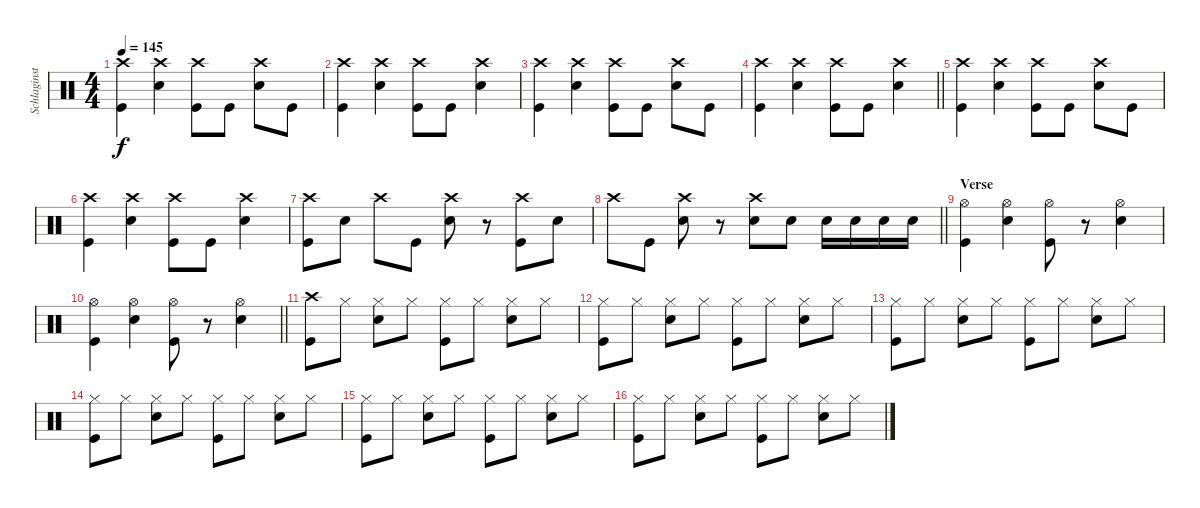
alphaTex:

\track ("Schlaginstrumente - Auswahl" "Schlaginst") {instrument percussion}
\staff {score}
\articulation defaults
\ts (4 4)
\tempo 145
\clef neutral
\ks c
("Kick (hit)" "Crash high (hit)").4{dy f} ("Snare (hit) 2" "Crash high (hit)").4 ("Kick (hit)" "Crash high (hit)").8 "Kick (hit)".8 ("Snare (hit) 2" "Crash high (hit)").8 "Kick (hit)".8 |
("Kick (hit)" "Crash high (hit)").4 ("Snare (hit) 2" "Crash high (hit)").4 ("Kick (hit)" "Crash high (hit)").8 "Kick (hit)".8 ("Snare (hit) 2" "Crash high (hit)").4 |
("Kick (hit)" "Crash high (hit)").4 ("Snare (hit) 2" "Crash high (hit)").4 ("Kick (hit)" "Crash high (hit)").8 "Kick (hit)".8 ("Snare (hit) 2" "Crash high (hit)").8 "Kick (hit)".8 |
\barLineRight lightlight
("Kick (hit)" "Crash high (hit)").4 ("Snare (hit) 2" "Crash high (hit)").4 ("Kick (hit)" "Crash high (hit)").8 "Kick (hit)".8 ("Snare (hit) 2" "Crash high (hit)").4 |
("Kick (hit)" "Crash high (hit)").4 ("Snare (hit) 2" "Crash high (hit)").4 ("Kick (hit)" "Crash high (hit)").8 "Kick (hit)".8 ("Snare (hit) 2" "Crash high (hit)").8 "Kick (hit)".8 |
("Kick (hit)" "Crash high (hit)").4 ("Snare (hit) 2" "Crash high (hit)").4 ("Kick (hit)" "Crash high (hit)").8 "Kick (hit)".8 ("Snare (hit) 2" "Crash high (hit)").4 |
("Kick (hit)" "Crash high (hit)").8 "Snare (hit) 2".8 "Crash high (hit)".8 "Kick (hit)".8 ("Snare (hit) 2" "Crash high (hit)").8 r.8 ("Kick (hit)" "Crash high (hit)").8 "Snare (hit) 2".8 |
\barLineRight lightlight "Crash high (hit)".8 "Kick (hit)".8
("Snare (hit) 2" "Crash high (hit)").8 r.8 ("Snare (hit) 2" "Crash high (hit)").8 "Snare (hit) 2".8 "Snare (hit) 2".16 "Snare (hit) 2".16 "Snare (hit) 2".16 "Snare (hit) 2".16 |
\section ("" "Verse")
("Kick (hit)" "Hi-Hat (open)").4 ("Snare (hit) 2" "Hi-Hat (open)").4 ("Kick (hit)" "Hi-Hat (open)").8 r.8 ("Snare (hit) 2" "Hi-Hat (open)").4 |
\barLineRight lightlight
("Kick (hit)" "Hi-Hat (open)").4 ("Snare (hit) 2" "Hi-Hat (open)").4 ("Kick (hit)" "Hi-Hat (open)").8 r.8 ("Snare (hit) 2" "Hi-Hat (open)").4 |
("Crash high (hit)" "Kick (hit)").8 "Hi-Hat (closed)".8 ("Hi-Hat (closed)" "Snare (hit) 2").8 "Hi-Hat (closed)".8 ("Hi-Hat (closed)" "Kick (hit)").8 "Hi-Hat (closed)".8 ("Hi-Hat (closed)" "Snare (hit) 2").8 "Hi-Hat (closed)".8 |
("Hi-Hat (closed)" "Kick (hit)").8 "Hi-Hat (closed)".8 ("Hi-Hat (closed)" "Snare (hit) 2").8 "Hi-Hat (closed)".8 ("Hi-Hat (closed)" "Kick (hit)").8 "Hi-Hat (closed)".8 ("Hi-Hat (closed)" "Snare (hit) 2").8 "Hi-Hat (closed)".8 |
("Hi-Hat (closed)" "Kick (hit)").8 "Hi-Hat (closed)".8 ("Hi-Hat (closed)" "Snare (hit) 2").8 "Hi-Hat (closed)".8 ("Hi-Hat (closed)" "Kick (hit)").8 "Hi-Hat (closed)".8 ("Hi-Hat (closed)" "Snare (hit) 2").8 "Hi-Hat (closed)".8 |
("Hi-Hat (closed)" "Kick (hit)").8 "Hi-Hat (closed)".8 ("Hi-Hat (closed)" "Snare (hit) 2").8 "Hi-Hat (closed)".8 ("Hi-Hat (closed)" "Kick (hit)").8 "Hi-Hat (closed)".8 ("Hi-Hat (closed)" "Snare (hit) 2").8 "Hi-Hat (closed)".8 |
("Hi-Hat (closed)" "Kick (hit)").8 "Hi-Hat (closed)".8 ("Hi-Hat (closed)" "Snare (hit) 2").8 "Hi-Hat (closed)".8 ("Hi-Hat (closed)" "Kick (hit)").8 "Hi-Hat (closed)".8 ("Hi-Hat (closed)" "Snare (hit) 2").8 "Hi-Hat (closed)".8 |
("Hi-Hat (closed)" "Kick (hit)").8 "Hi-Hat (closed)".8 ("Hi-Hat (closed)" "Snare (hit) 2").8 "Hi-Hat (closed)".8 ("Hi-Hat (closed)" "Kick (hit)").8 "Hi-Hat (closed)".8 ("Hi-Hat (closed)" "Snare (hit) 2").8 "Hi-Hat (closed)".8
